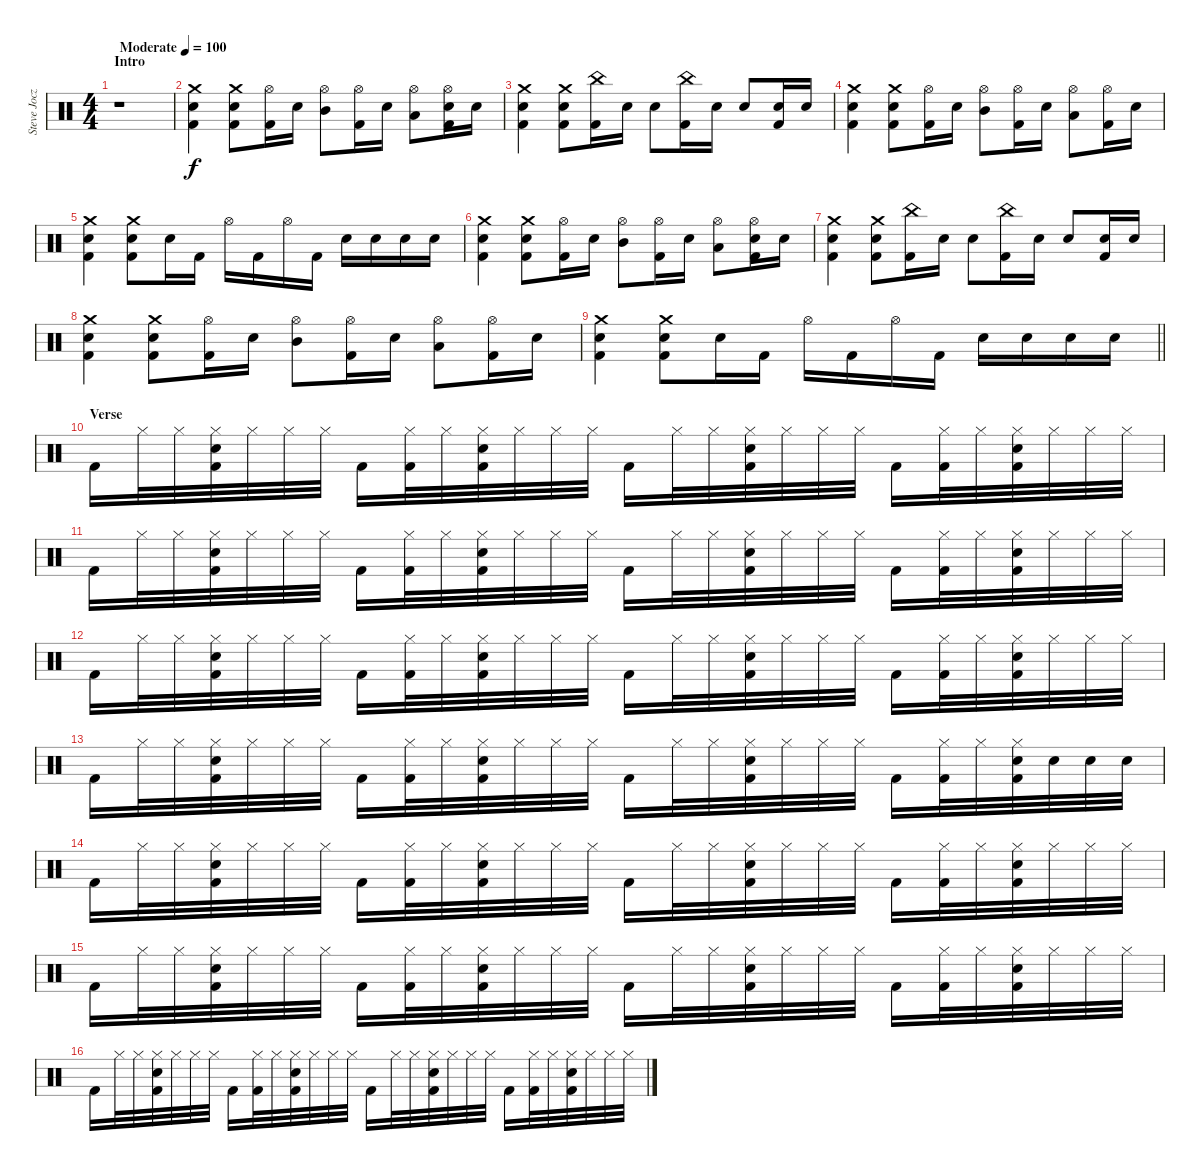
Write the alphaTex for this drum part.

\track ("Steve Jocz <Drums>" "Steve Jocz") {instrument percussion}
\staff {score}
\articulation defaults
\ts (4 4)
\section ("" "Intro")
\tempo (100 "Moderate")
\clef neutral
\ks c
r.1{dy f} |
("Crash medium (hit)" "Snare (hit) 2" "Kick (hit) 2").4 ("Crash medium (hit)" "Snare (hit) 2" "Kick (hit) 2").8 ("Hi-Hat (open)" "Kick (hit) 2").16 "Snare (hit) 2".16 ("Hi-Hat (open)" "Mid Tom (hit)").8 ("Hi-Hat (open)" "Kick (hit) 2").16 "Snare (hit) 2".16 ("Hi-Hat (open)" "Low Floor Tom (hit)").8 ("Hi-Hat (open)" "Snare (hit) 2" "Kick (hit) 2").16 "Snare (hit) 2".16 |
("Crash medium (hit)" "Snare (hit) 2" "Kick (hit) 2").4 ("Crash medium (hit)" "Snare (hit) 2" "Kick (hit) 2").8 ("China (hit)" "Kick (hit) 2").16 "Snare (hit) 2".16 "Snare (hit) 2".8 ("China (hit)" "Kick (hit) 2").16 "Snare (hit) 2".16 "Snare (hit) 2".8 ("Snare (hit) 2" "Kick (hit) 2").16 "Snare (hit) 2".16 |
("Crash medium (hit)" "Snare (hit) 2" "Kick (hit) 2").4 ("Crash medium (hit)" "Snare (hit) 2" "Kick (hit) 2").8 ("Hi-Hat (open)" "Kick (hit) 2").16 "Snare (hit) 2".16 ("Hi-Hat (open)" "Mid Tom (hit)").8 ("Hi-Hat (open)" "Kick (hit) 2").16 "Snare (hit) 2".16 ("Hi-Hat (open)" "Low Floor Tom (hit)").8 ("Hi-Hat (open)" "Kick (hit) 2").16 "Snare (hit) 2".16 |
("Crash medium (hit)" "Snare (hit) 2" "Kick (hit) 2").4 ("Crash medium (hit)" "Snare (hit) 2" "Kick (hit) 2").8 "Snare (hit) 2".16 "Kick (hit) 2".16 "Hi-Hat (open)".16 "Kick (hit) 2".16 "Hi-Hat (open)".16 "Kick (hit) 2".16 "Snare (hit) 2".16 "Snare (hit) 2".16 "Snare (hit) 2".16 "Snare (hit) 2".16 |
("Crash medium (hit)" "Snare (hit) 2" "Kick (hit) 2").4 ("Crash medium (hit)" "Snare (hit) 2" "Kick (hit) 2").8 ("Hi-Hat (open)" "Kick (hit) 2").16 "Snare (hit) 2".16 ("Hi-Hat (open)" "Mid Tom (hit)").8 ("Hi-Hat (open)" "Kick (hit) 2").16 "Snare (hit) 2".16 ("Hi-Hat (open)" "Low Floor Tom (hit)").8 ("Hi-Hat (open)" "Snare (hit) 2" "Kick (hit) 2").16 "Snare (hit) 2".16 |
("Crash medium (hit)" "Snare (hit) 2" "Kick (hit) 2").4 ("Crash medium (hit)" "Snare (hit) 2" "Kick (hit) 2").8 ("China (hit)" "Kick (hit) 2").16 "Snare (hit) 2".16 "Snare (hit) 2".8 ("China (hit)" "Kick (hit) 2").16 "Snare (hit) 2".16 "Snare (hit) 2".8 ("Snare (hit) 2" "Kick (hit) 2").16 "Snare (hit) 2".16 |
("Crash medium (hit)" "Snare (hit) 2" "Kick (hit) 2").4 ("Crash medium (hit)" "Snare (hit) 2" "Kick (hit) 2").8 ("Hi-Hat (open)" "Kick (hit) 2").16 "Snare (hit) 2".16 ("Hi-Hat (open)" "Mid Tom (hit)").8 ("Hi-Hat (open)" "Kick (hit) 2").16 "Snare (hit) 2".16 ("Hi-Hat (open)" "Low Floor Tom (hit)").8 ("Hi-Hat (open)" "Kick (hit) 2").16 "Snare (hit) 2".16 |
\barLineRight lightlight
("Crash medium (hit)" "Snare (hit) 2" "Kick (hit) 2").4 ("Crash medium (hit)" "Snare (hit) 2" "Kick (hit) 2").8 "Snare (hit) 2".16 "Kick (hit) 2".16 "Hi-Hat (open)".16 "Kick (hit) 2".16 "Hi-Hat (open)".16 "Kick (hit) 2".16 "Snare (hit) 2".16 "Snare (hit) 2".16 "Snare (hit) 2".16 "Snare (hit) 2".16 |
\section ("" "Verse")
"Kick (hit) 2".16 "Hi-Hat (closed)".32 "Hi-Hat (closed)".32 ("Hi-Hat (closed)" "Snare (hit) 2" "Kick (hit) 2").32 "Hi-Hat (closed)".32 "Hi-Hat (closed)".32 "Hi-Hat (closed)".32 "Kick (hit) 2".16 ("Hi-Hat (closed)" "Kick (hit) 2").32 "Hi-Hat (closed)".32 ("Hi-Hat (closed)" "Snare (hit) 2" "Kick (hit) 2").32 "Hi-Hat (closed)".32 "Hi-Hat (closed)".32 "Hi-Hat (closed)".32 "Kick (hit) 2".16 "Hi-Hat (closed)".32 "Hi-Hat (closed)".32 ("Hi-Hat (closed)" "Snare (hit) 2" "Kick (hit) 2").32 "Hi-Hat (closed)".32 "Hi-Hat (closed)".32 "Hi-Hat (closed)".32 "Kick (hit) 2".16 ("Hi-Hat (closed)" "Kick (hit) 2").32 "Hi-Hat (closed)".32 ("Hi-Hat (closed)" "Snare (hit) 2" "Kick (hit) 2").32 "Hi-Hat (closed)".32 "Hi-Hat (closed)".32 "Hi-Hat (closed)".32 |
"Kick (hit) 2".16 "Hi-Hat (closed)".32 "Hi-Hat (closed)".32 ("Hi-Hat (closed)" "Snare (hit) 2" "Kick (hit) 2").32 "Hi-Hat (closed)".32 "Hi-Hat (closed)".32 "Hi-Hat (closed)".32 "Kick (hit) 2".16 ("Hi-Hat (closed)" "Kick (hit) 2").32 "Hi-Hat (closed)".32 ("Hi-Hat (closed)" "Snare (hit) 2" "Kick (hit) 2").32 "Hi-Hat (closed)".32 "Hi-Hat (closed)".32 "Hi-Hat (closed)".32 "Kick (hit) 2".16 "Hi-Hat (closed)".32 "Hi-Hat (closed)".32 ("Hi-Hat (closed)" "Snare (hit) 2" "Kick (hit) 2").32 "Hi-Hat (closed)".32 "Hi-Hat (closed)".32 "Hi-Hat (closed)".32 "Kick (hit) 2".16 ("Hi-Hat (closed)" "Kick (hit) 2").32 "Hi-Hat (closed)".32 ("Hi-Hat (closed)" "Snare (hit) 2" "Kick (hit) 2").32 "Hi-Hat (closed)".32 "Hi-Hat (closed)".32 "Hi-Hat (closed)".32 |
"Kick (hit) 2".16 "Hi-Hat (closed)".32 "Hi-Hat (closed)".32 ("Hi-Hat (closed)" "Snare (hit) 2" "Kick (hit) 2").32 "Hi-Hat (closed)".32 "Hi-Hat (closed)".32 "Hi-Hat (closed)".32 "Kick (hit) 2".16 ("Hi-Hat (closed)" "Kick (hit) 2").32 "Hi-Hat (closed)".32 ("Hi-Hat (closed)" "Snare (hit) 2" "Kick (hit) 2").32 "Hi-Hat (closed)".32 "Hi-Hat (closed)".32 "Hi-Hat (closed)".32 "Kick (hit) 2".16 "Hi-Hat (closed)".32 "Hi-Hat (closed)".32 ("Hi-Hat (closed)" "Snare (hit) 2" "Kick (hit) 2").32 "Hi-Hat (closed)".32 "Hi-Hat (closed)".32 "Hi-Hat (closed)".32 "Kick (hit) 2".16 ("Hi-Hat (closed)" "Kick (hit) 2").32 "Hi-Hat (closed)".32 ("Hi-Hat (closed)" "Snare (hit) 2" "Kick (hit) 2").32 "Hi-Hat (closed)".32 "Hi-Hat (closed)".32 "Hi-Hat (closed)".32 |
"Kick (hit) 2".16 "Hi-Hat (closed)".32 "Hi-Hat (closed)".32 ("Hi-Hat (closed)" "Snare (hit) 2" "Kick (hit) 2").32 "Hi-Hat (closed)".32 "Hi-Hat (closed)".32 "Hi-Hat (closed)".32 "Kick (hit) 2".16 ("Hi-Hat (closed)" "Kick (hit) 2").32 "Hi-Hat (closed)".32 ("Hi-Hat (closed)" "Snare (hit) 2" "Kick (hit) 2").32 "Hi-Hat (closed)".32 "Hi-Hat (closed)".32 "Hi-Hat (closed)".32 "Kick (hit) 2".16 "Hi-Hat (closed)".32 "Hi-Hat (closed)".32 ("Hi-Hat (closed)" "Snare (hit) 2" "Kick (hit) 2").32 "Hi-Hat (closed)".32 "Hi-Hat (closed)".32 "Hi-Hat (closed)".32 "Kick (hit) 2".16 ("Hi-Hat (closed)" "Kick (hit) 2").32 "Hi-Hat (closed)".32 ("Hi-Hat (closed)" "Snare (hit) 2" "Kick (hit) 2").32 "Snare (hit) 2".32 "Snare (hit) 2".32 "Snare (hit) 2".32 |
"Kick (hit) 2".16 "Hi-Hat (closed)".32 "Hi-Hat (closed)".32 ("Hi-Hat (closed)" "Snare (hit) 2" "Kick (hit) 2").32 "Hi-Hat (closed)".32 "Hi-Hat (closed)".32 "Hi-Hat (closed)".32 "Kick (hit) 2".16 ("Hi-Hat (closed)" "Kick (hit) 2").32 "Hi-Hat (closed)".32 ("Hi-Hat (closed)" "Snare (hit) 2" "Kick (hit) 2").32 "Hi-Hat (closed)".32 "Hi-Hat (closed)".32 "Hi-Hat (closed)".32 "Kick (hit) 2".16 "Hi-Hat (closed)".32 "Hi-Hat (closed)".32 ("Hi-Hat (closed)" "Snare (hit) 2" "Kick (hit) 2").32 "Hi-Hat (closed)".32 "Hi-Hat (closed)".32 "Hi-Hat (closed)".32 "Kick (hit) 2".16 ("Hi-Hat (closed)" "Kick (hit) 2").32 "Hi-Hat (closed)".32 ("Hi-Hat (closed)" "Snare (hit) 2" "Kick (hit) 2").32 "Hi-Hat (closed)".32 "Hi-Hat (closed)".32 "Hi-Hat (closed)".32 |
"Kick (hit) 2".16 "Hi-Hat (closed)".32 "Hi-Hat (closed)".32 ("Hi-Hat (closed)" "Snare (hit) 2" "Kick (hit) 2").32 "Hi-Hat (closed)".32 "Hi-Hat (closed)".32 "Hi-Hat (closed)".32 "Kick (hit) 2".16 ("Hi-Hat (closed)" "Kick (hit) 2").32 "Hi-Hat (closed)".32 ("Hi-Hat (closed)" "Snare (hit) 2" "Kick (hit) 2").32 "Hi-Hat (closed)".32 "Hi-Hat (closed)".32 "Hi-Hat (closed)".32 "Kick (hit) 2".16 "Hi-Hat (closed)".32 "Hi-Hat (closed)".32 ("Hi-Hat (closed)" "Snare (hit) 2" "Kick (hit) 2").32 "Hi-Hat (closed)".32 "Hi-Hat (closed)".32 "Hi-Hat (closed)".32 "Kick (hit) 2".16 ("Hi-Hat (closed)" "Kick (hit) 2").32 "Hi-Hat (closed)".32 ("Hi-Hat (closed)" "Snare (hit) 2" "Kick (hit) 2").32 "Hi-Hat (closed)".32 "Hi-Hat (closed)".32 "Hi-Hat (closed)".32 |
"Kick (hit) 2".16 "Hi-Hat (closed)".32 "Hi-Hat (closed)".32 ("Hi-Hat (closed)" "Snare (hit) 2" "Kick (hit) 2").32 "Hi-Hat (closed)".32 "Hi-Hat (closed)".32 "Hi-Hat (closed)".32 "Kick (hit) 2".16 ("Hi-Hat (closed)" "Kick (hit) 2").32 "Hi-Hat (closed)".32 ("Hi-Hat (closed)" "Snare (hit) 2" "Kick (hit) 2").32 "Hi-Hat (closed)".32 "Hi-Hat (closed)".32 "Hi-Hat (closed)".32 "Kick (hit) 2".16 "Hi-Hat (closed)".32 "Hi-Hat (closed)".32 ("Hi-Hat (closed)" "Snare (hit) 2" "Kick (hit) 2").32 "Hi-Hat (closed)".32 "Hi-Hat (closed)".32 "Hi-Hat (closed)".32 "Kick (hit) 2".16 ("Hi-Hat (closed)" "Kick (hit) 2").32 "Hi-Hat (closed)".32 ("Hi-Hat (closed)" "Snare (hit) 2" "Kick (hit) 2").32 "Hi-Hat (closed)".32 "Hi-Hat (closed)".32 "Hi-Hat (closed)".32
